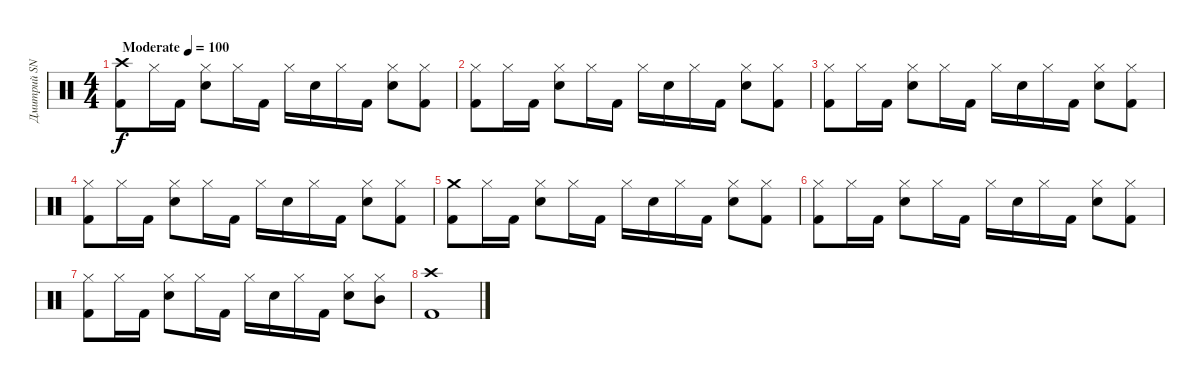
\track ("Дмитрий SNAKE Хакимов" "Дмитрий SN") {instrument percussion}
\staff {score}
\articulation defaults
\ts (4 4)
\tempo (100 "Moderate")
\clef neutral
\ks c
("Crash high (hit)" "Kick (hit) 2").8{dy f} "Hi-Hat (closed)".16 "Kick (hit) 2".16 ("Hi-Hat (closed)" "Snare (hit) 2").8 "Hi-Hat (closed)".16 "Kick (hit) 2".16 "Hi-Hat (closed)".16 "Snare (hit) 2".16 "Hi-Hat (closed)".16 "Kick (hit) 2".16 ("Hi-Hat (closed)" "Snare (hit) 2").8 ("Hi-Hat (closed)" "Kick (hit) 2").8 |
("Hi-Hat (closed)" "Kick (hit) 2").8 "Hi-Hat (closed)".16 "Kick (hit) 2".16 ("Hi-Hat (closed)" "Snare (hit) 2").8 "Hi-Hat (closed)".16 "Kick (hit) 2".16 "Hi-Hat (closed)".16 "Snare (hit) 2".16 "Hi-Hat (closed)".16 "Kick (hit) 2".16 ("Hi-Hat (closed)" "Snare (hit) 2").8 ("Hi-Hat (closed)" "Kick (hit) 2").8 |
("Hi-Hat (closed)" "Kick (hit) 2").8 "Hi-Hat (closed)".16 "Kick (hit) 2".16 ("Hi-Hat (closed)" "Snare (hit) 2").8 "Hi-Hat (closed)".16 "Kick (hit) 2".16 "Hi-Hat (closed)".16 "Snare (hit) 2".16 "Hi-Hat (closed)".16 "Kick (hit) 2".16 ("Hi-Hat (closed)" "Snare (hit) 2").8 ("Hi-Hat (closed)" "Kick (hit) 2").8 |
("Hi-Hat (closed)" "Kick (hit) 2").8 "Hi-Hat (closed)".16 "Kick (hit) 2".16 ("Hi-Hat (closed)" "Snare (hit) 2").8 "Hi-Hat (closed)".16 "Kick (hit) 2".16 "Hi-Hat (closed)".16 "Snare (hit) 2".16 "Hi-Hat (closed)".16 "Kick (hit) 2".16 ("Hi-Hat (closed)" "Snare (hit) 2").8 ("Hi-Hat (closed)" "Kick (hit) 2").8 |
("Crash medium (hit)" "Kick (hit) 2").8 "Hi-Hat (closed)".16 "Kick (hit) 2".16 ("Hi-Hat (closed)" "Snare (hit) 2").8 "Hi-Hat (closed)".16 "Kick (hit) 2".16 "Hi-Hat (closed)".16 "Snare (hit) 2".16 "Hi-Hat (closed)".16 "Kick (hit) 2".16 ("Hi-Hat (closed)" "Snare (hit) 2").8 ("Hi-Hat (closed)" "Kick (hit) 2").8 |
("Hi-Hat (closed)" "Kick (hit) 2").8 "Hi-Hat (closed)".16 "Kick (hit) 2".16 ("Hi-Hat (closed)" "Snare (hit) 2").8 "Hi-Hat (closed)".16 "Kick (hit) 2".16 "Hi-Hat (closed)".16 "Snare (hit) 2".16 "Hi-Hat (closed)".16 "Kick (hit) 2".16 ("Hi-Hat (closed)" "Snare (hit) 2").8 ("Hi-Hat (closed)" "Kick (hit) 2").8 |
("Hi-Hat (closed)" "Kick (hit) 2").8 "Hi-Hat (closed)".16 "Kick (hit) 2".16 ("Hi-Hat (closed)" "Snare (hit) 2").8 "Hi-Hat (closed)".16 "Kick (hit) 2".16 "Hi-Hat (closed)".16 "Snare (hit) 2".16 "Hi-Hat (closed)".16 "Kick (hit) 2".16 ("Hi-Hat (closed)" "Snare (hit) 2").8 ("Hi-Hat (closed)" "Mid Tom (hit)").8 |
("Crash high (hit)" "Kick (hit) 2").1
